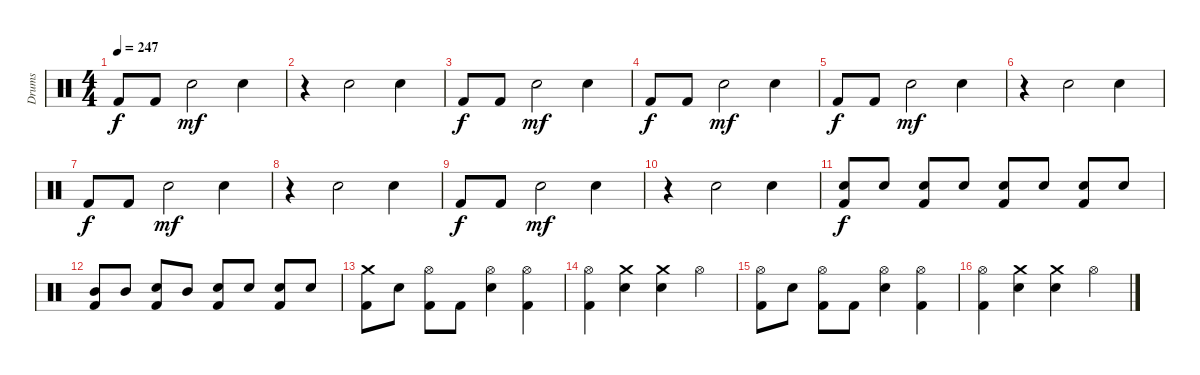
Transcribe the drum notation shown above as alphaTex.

\track ("Drums" "Drums") {instrument percussion}
\staff {score}
\articulation defaults
\ts (4 4)
\tempo 247
\clef neutral
\ks c "Kick (hit) 2".8{dy f} "Kick (hit) 2".8 "Electric Snare (hit)".2{dy mf} "Electric Snare (hit)".4
|
r.4 "Electric Snare (hit)".2 "Electric Snare (hit)".4 |
"Kick (hit) 2".8{dy f} "Kick (hit) 2".8 "Electric Snare (hit)".2{dy mf} "Electric Snare (hit)".4 |
"Kick (hit) 2".8{dy f} "Kick (hit) 2".8 "Electric Snare (hit)".2{dy mf} "Electric Snare (hit)".4 |
"Kick (hit) 2".8{dy f} "Kick (hit) 2".8 "Electric Snare (hit)".2{dy mf} "Electric Snare (hit)".4 |
r.4 "Electric Snare (hit)".2 "Electric Snare (hit)".4 |
"Kick (hit) 2".8{dy f} "Kick (hit) 2".8 "Electric Snare (hit)".2{dy mf} "Electric Snare (hit)".4 |
r.4 "Electric Snare (hit)".2 "Electric Snare (hit)".4 |
"Kick (hit) 2".8{dy f} "Kick (hit) 2".8 "Electric Snare (hit)".2{dy mf} "Electric Snare (hit)".4 |
r.4 "Electric Snare (hit)".2 "Electric Snare (hit)".4 |
("Electric Snare (hit)" "Kick (hit) 2").8{dy f} "Electric Snare (hit)".8 ("Electric Snare (hit)" "Kick (hit) 2").8 "Electric Snare (hit)".8 ("Electric Snare (hit)" "Kick (hit) 2").8 "Electric Snare (hit)".8 ("Electric Snare (hit)" "Kick (hit) 2").8 "Electric Snare (hit)".8 |
("Mid Tom (hit)" "Kick (hit) 2").8 "Mid Tom (hit)".8 ("Electric Snare (hit)" "Kick (hit) 2").8 "Mid Tom (hit)".8 ("Electric Snare (hit)" "Kick (hit) 2").8 "Electric Snare (hit)".8 ("Electric Snare (hit)" "Kick (hit) 2").8 "Electric Snare (hit)".8 |
("Crash medium (hit)" "Kick (hit) 2").8 "Electric Snare (hit)".8 ("Hi-Hat (open)" "Kick (hit) 2").8 "Kick (hit) 2".8 ("Hi-Hat (open)" "Electric Snare (hit)").4 ("Hi-Hat (open)" "Kick (hit) 2").4 |
("Hi-Hat (open)" "Kick (hit) 2").4 ("Crash medium (hit)" "Electric Snare (hit)").4 ("Crash medium (hit)" "Electric Snare (hit)").4 "Hi-Hat (open)".4 |
("Hi-Hat (open)" "Kick (hit) 2").8 "Electric Snare (hit)".8 ("Hi-Hat (open)" "Kick (hit) 2").8 "Kick (hit) 2".8 ("Hi-Hat (open)" "Electric Snare (hit)").4 ("Hi-Hat (open)" "Kick (hit) 2").4 |
("Hi-Hat (open)" "Kick (hit) 2").4 ("Crash medium (hit)" "Electric Snare (hit)").4 ("Crash medium (hit)" "Electric Snare (hit)").4 "Hi-Hat (open)".4
